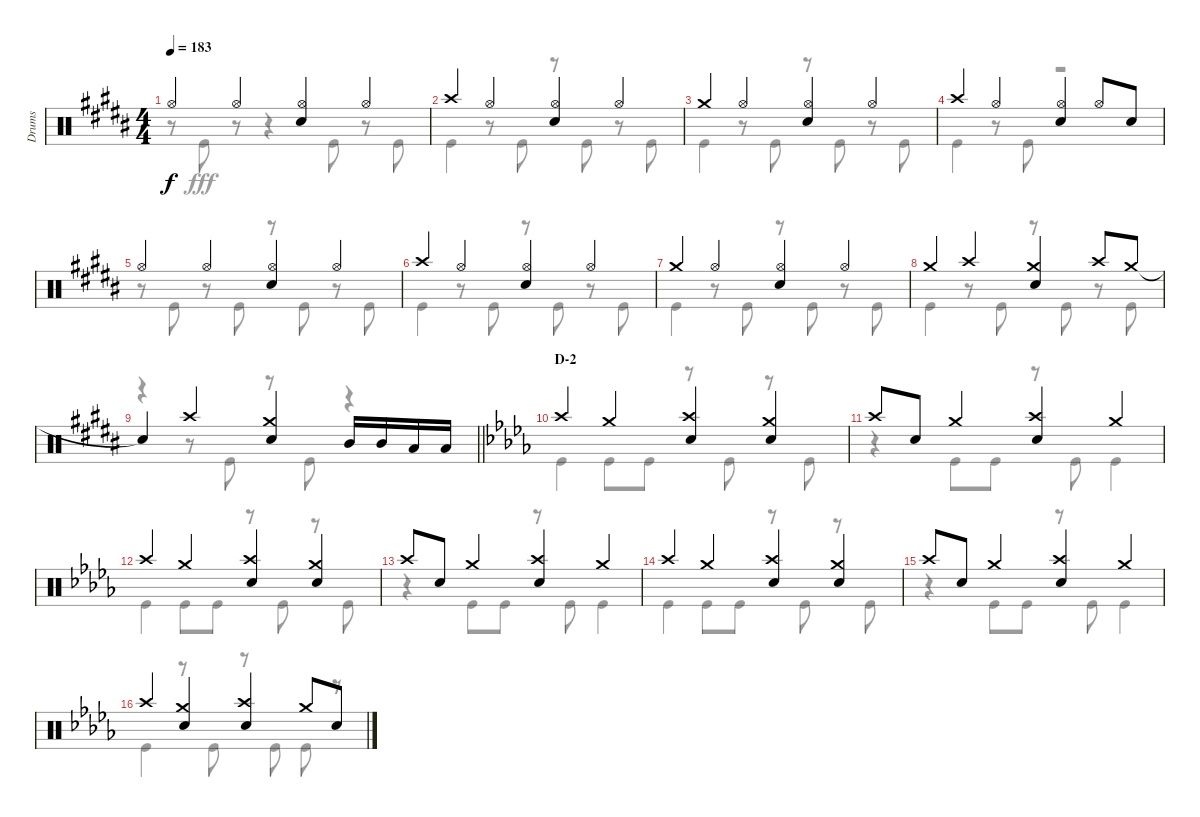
\track ("Drums" "Drums") {instrument percussion}
\staff {score}
\articulation defaults
\voice
\ts (4 4)
\tempo 183
\clef neutral
\ks b "Hi-Hat (open)".4{dy f} "Hi-Hat (open)".4
("Hi-Hat (open)" "Snare (hit) 2").4 "Hi-Hat (open)".4 |
"Crash high (hit)".4 "Hi-Hat (open)".4 ("Hi-Hat (open)" "Snare (hit) 2").4 "Hi-Hat (open)".4 |
"Crash medium (hit)".4 "Hi-Hat (open)".4 ("Hi-Hat (open)" "Snare (hit) 2").4 "Hi-Hat (open)".4 |
"Crash high (hit)".4 "Hi-Hat (open)".4 ("Hi-Hat (open)" "Snare (hit) 2").4 "Hi-Hat (open)".8 "Snare (hit) 2".8 |
"Hi-Hat (open)".4 "Hi-Hat (open)".4 ("Hi-Hat (open)" "Snare (hit) 2").4 "Hi-Hat (open)".4 |
"Crash high (hit)".4 "Hi-Hat (open)".4 ("Hi-Hat (open)" "Snare (hit) 2").4 "Hi-Hat (open)".4 |
"Crash medium (hit)".4 "Hi-Hat (open)".4 ("Hi-Hat (open)" "Snare (hit) 2").4 "Hi-Hat (open)".4 |
"Crash medium (hit)".4 "Crash high (hit)".4 ("Crash medium (hit)" "Snare (hit) 2").4 "Crash high (hit)".8 "Crash medium (hit)".8 |
\barLineRight lightlight "Snare (hit)"{t}.4 "Crash high (hit)".4
("Crash medium (hit)" "Snare (hit) 2").4 "Mid Tom (hit)".16 "Mid Tom (hit)".16 "Low Tom (hit)".16 "Low Tom (hit)".16 |
\section ("" "D-2")
\ks db "Crash high (hit)".4 "Crash medium (hit)".4
("Crash high (hit)" "Snare (hit) 2").4 ("Crash medium (hit)" "Snare (hit) 2").4 |
"Crash high (hit)".8 "Snare (hit) 2".8 "Crash medium (hit)".4 ("Crash high (hit)" "Snare (hit) 2").4 "Crash medium (hit)".4 |
"Crash high (hit)".4 "Crash medium (hit)".4 ("Crash high (hit)" "Snare (hit) 2").4 ("Crash medium (hit)" "Snare (hit) 2").4 |
"Crash high (hit)".8 "Snare (hit) 2".8 "Crash medium (hit)".4 ("Crash high (hit)" "Snare (hit) 2").4 "Crash medium (hit)".4 |
"Crash high (hit)".4 "Crash medium (hit)".4 ("Crash high (hit)" "Snare (hit) 2").4 ("Crash medium (hit)" "Snare (hit) 2").4 |
"Crash high (hit)".8 "Snare (hit) 2".8 "Crash medium (hit)".4 ("Crash high (hit)" "Snare (hit) 2").4 "Crash medium (hit)".4 |
"Crash high (hit)".4 ("Crash medium (hit)" "Snare (hit) 2").4 ("Crash high (hit)" "Snare (hit) 2").4 "Crash medium (hit)".8 "Snare (hit) 2".8
\voice
\clef neutral
\ottava regular
\simile none
\ks b
r.8{dy fff} "Kick (hit)".8 r.8 r.4 "Kick (hit)".8 r.8 "Kick (hit)".8 |
"Kick (hit)".4 r.8 "Kick (hit)".8 r.8 "Kick (hit)".8 r.8 "Kick (hit)".8 |
"Kick (hit)".4 r.8 "Kick (hit)".8 r.8 "Kick (hit)".8 r.8 "Kick (hit)".8 |
"Kick (hit)".4 r.8 "Kick (hit)".8 r.2 |
r.8 "Kick (hit)".8 r.8 "Kick (hit)".8 r.8 "Kick (hit)".8 r.8 "Kick (hit)".8 |
"Kick (hit)".4 r.8 "Kick (hit)".8 r.8 "Kick (hit)".8 r.8 "Kick (hit)".8 |
"Kick (hit)".4 r.8 "Kick (hit)".8 r.8 "Kick (hit)".8 r.8 "Kick (hit)".8 |
"Kick (hit)".4 r.8 "Kick (hit)".8 r.8 "Kick (hit)".8 r.8 "Kick (hit)".8 |
\barLineRight lightlight
r.4 r.8 "Kick (hit)".8 r.8 "Kick (hit)".8 r.4 |
\ks db "Kick (hit)".4 "Kick (hit)".8 "Kick (hit)".8
r.8 "Kick (hit)".8 r.8 "Kick (hit)".8 |
r.4 "Kick (hit)".8 "Kick (hit)".8 r.8 "Kick (hit)".8 "Kick (hit)".4 |
"Kick (hit)".4 "Kick (hit)".8 "Kick (hit)".8 r.8 "Kick (hit)".8 r.8 "Kick (hit)".8 |
r.4 "Kick (hit)".8 "Kick (hit)".8 r.8 "Kick (hit)".8 "Kick (hit)".4 |
"Kick (hit)".4 "Kick (hit)".8 "Kick (hit)".8 r.8 "Kick (hit)".8 r.8 "Kick (hit)".8 |
r.4 "Kick (hit)".8 "Kick (hit)".8 r.8 "Kick (hit)".8 "Kick (hit)".4 |
"Kick (hit)".4 r.8 "Kick (hit)".8 r.8 "Kick (hit)".8 "Kick (hit)".8 r.8
